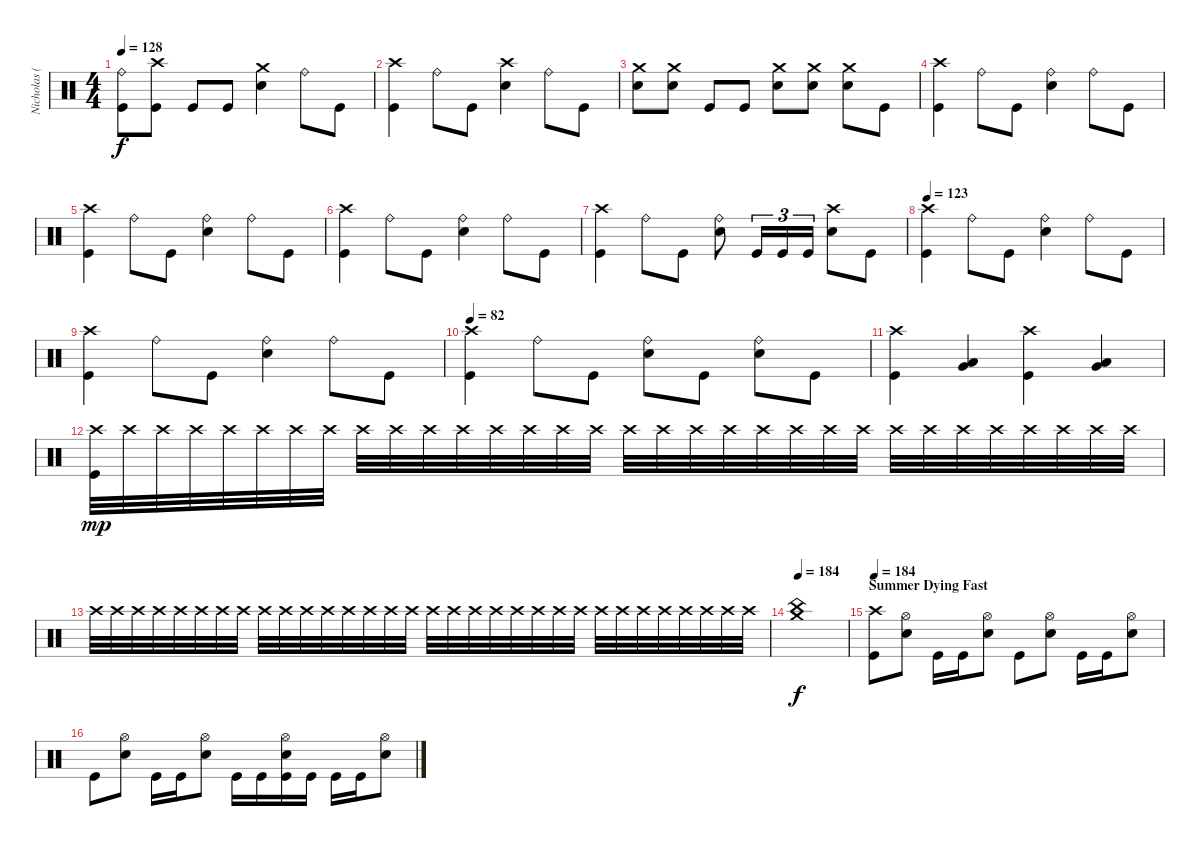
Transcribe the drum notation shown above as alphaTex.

\track ("Nicholas (Drums)" "Nicholas (") {instrument percussion}
\staff {score}
\articulation defaults
\ts (4 4)
\tempo 128
\clef neutral
\ks c
("Ride (bell)" "Kick (hit)").8{dy f} ("Crash high (hit)" "Kick (hit)").8 "Kick (hit)".8 "Kick (hit)".8 ("Crash medium (hit)" "Electric Snare (hit)").4 "Ride (bell)".8 "Kick (hit)".8 |
("Crash high (hit)" "Kick (hit)").4 "Ride (bell)".8 "Kick (hit)".8 ("Crash high (hit)" "Electric Snare (hit)").4 "Ride (bell)".8 "Kick (hit)".8 |
("Crash medium (hit)" "Electric Snare (hit)").8 ("Crash medium (hit)" "Electric Snare (hit)").8 "Kick (hit)".8 "Kick (hit)".8 ("Crash medium (hit)" "Electric Snare (hit)").8 ("Crash medium (hit)" "Electric Snare (hit)").8 ("Crash medium (hit)" "Electric Snare (hit)").8 "Kick (hit)".8 |
("Crash high (hit)" "Kick (hit)").4 "Ride (bell)".8 "Kick (hit)".8 ("Ride (bell)" "Electric Snare (hit)").4 "Ride (bell)".8 "Kick (hit)".8 |
("Crash high (hit)" "Kick (hit)").4 "Ride (bell)".8 "Kick (hit)".8 ("Ride (bell)" "Electric Snare (hit)").4 "Ride (bell)".8 "Kick (hit)".8 |
("Crash high (hit)" "Kick (hit)").4 "Ride (bell)".8 "Kick (hit)".8 ("Ride (bell)" "Electric Snare (hit)").4 "Ride (bell)".8 "Kick (hit)".8 |
("Crash high (hit)" "Kick (hit)").4 "Ride (bell)".8 "Kick (hit)".8 ("Ride (bell)" "Electric Snare (hit)").8 "Kick (hit)".16{tu (3 2)} "Kick (hit)".16{tu (3 2)} "Kick (hit)".16{tu (3 2)} ("Crash high (hit)" "Electric Snare (hit)").8 "Kick (hit)".8 |
\tempo 123
("Crash high (hit)" "Kick (hit)").4 "Ride (bell)".8 "Kick (hit)".8 ("Ride (bell)" "Electric Snare (hit)").4 "Ride (bell)".8 "Kick (hit)".8 |
("Crash high (hit)" "Kick (hit)").4 "Ride (bell)".8 "Kick (hit)".8 ("Ride (bell)" "Electric Snare (hit)").4 "Ride (bell)".8 "Kick (hit)".8 |
\tempo 82
("Crash high (hit)" "Kick (hit)").4 "Ride (bell)".8 "Kick (hit)".8 ("Ride (bell)" "Electric Snare (hit)").8 "Kick (hit)".8 ("Ride (bell)" "Electric Snare (hit)").8 "Kick (hit)".8 |
("Crash high (hit)" "Kick (hit)").4 ("Low Tom (hit)" "Very Low Tom (hit)").4{bu 120} ("Crash high (hit)" "Kick (hit)").4 ("Low Tom (hit)" "Very Low Tom (hit)").4{bu 120} |
("Crash high (hit)" "Kick (hit)").32{dy mp} "Crash high (hit)".32 "Crash high (hit)".32 "Crash high (hit)".32 "Crash high (hit)".32 "Crash high (hit)".32 "Crash high (hit)".32 "Crash high (hit)".32 "Crash high (hit)".32 "Crash high (hit)".32 "Crash high (hit)".32 "Crash high (hit)".32 "Crash high (hit)".32 "Crash high (hit)".32 "Crash high (hit)".32 "Crash high (hit)".32 "Crash high (hit)".32 "Crash high (hit)".32 "Crash high (hit)".32 "Crash high (hit)".32 "Crash high (hit)".32 "Crash high (hit)".32 "Crash high (hit)".32 "Crash high (hit)".32 "Crash high (hit)".32 "Crash high (hit)".32 "Crash high (hit)".32 "Crash high (hit)".32 "Crash high (hit)".32 "Crash high (hit)".32 "Crash high (hit)".32 "Crash high (hit)".32 |
"Crash high (hit)".32 "Crash high (hit)".32 "Crash high (hit)".32 "Crash high (hit)".32 "Crash high (hit)".32 "Crash high (hit)".32 "Crash high (hit)".32 "Crash high (hit)".32 "Crash high (hit)".32 "Crash high (hit)".32 "Crash high (hit)".32 "Crash high (hit)".32 "Crash high (hit)".32 "Crash high (hit)".32 "Crash high (hit)".32 "Crash high (hit)".32 "Crash high (hit)".32 "Crash high (hit)".32 "Crash high (hit)".32 "Crash high (hit)".32 "Crash high (hit)".32 "Crash high (hit)".32 "Crash high (hit)".32 "Crash high (hit)".32 "Crash high (hit)".32 "Crash high (hit)".32 "Crash high (hit)".32 "Crash high (hit)".32 "Crash high (hit)".32 "Crash high (hit)".32 "Crash high (hit)".32 "Crash high (hit)".32 |
\tempo 184
("China (hit)" "Crash medium (hit)").1{dy f} |
\section ("" "Summer Dying Fast")
\tempo 184
("Crash high (hit)" "Kick (hit)").8 ("Hi-Hat (open)" "Electric Snare (hit)").8 "Kick (hit)".16 "Kick (hit)".16 ("Hi-Hat (open)" "Electric Snare (hit)").8 "Kick (hit)".8 ("Hi-Hat (open)" "Electric Snare (hit)").8 "Kick (hit)".16 "Kick (hit)".16 ("Hi-Hat (open)" "Electric Snare (hit)").8 |
"Kick (hit)".8 ("Hi-Hat (open)" "Electric Snare (hit)").8 "Kick (hit)".16 "Kick (hit)".16 ("Hi-Hat (open)" "Electric Snare (hit)").8 "Kick (hit)".16 "Kick (hit)".16 ("Hi-Hat (open)" "Electric Snare (hit)" "Kick (hit)").16 "Kick (hit)".16 "Kick (hit)".16 "Kick (hit)".16 ("Hi-Hat (open)" "Electric Snare (hit)").8
